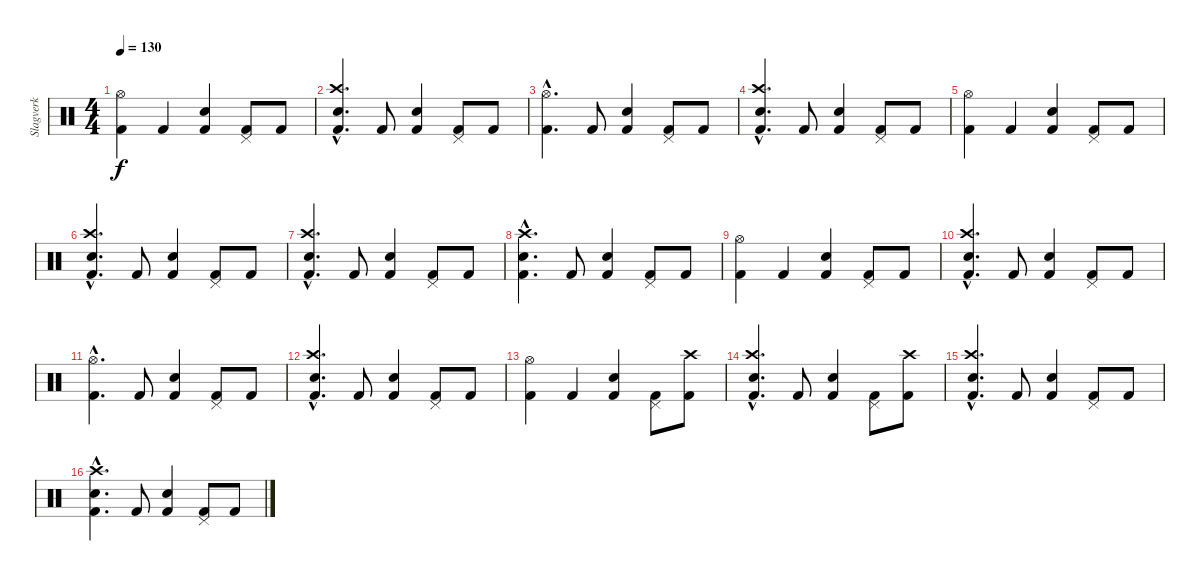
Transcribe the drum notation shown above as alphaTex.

\track ("Slagverk" "Slagverk") {instrument percussion}
\staff {score}
\articulation defaults
\ts (4 4)
\tempo 130
\clef neutral
\ks c
("Hi-Hat (open)" "Kick (hit) 2").4{dy f} "Kick (hit) 2".4 ("Electric Snare (hit)" "Kick (hit) 2").4 ("Pedal Hi-Hat (hit)" "Kick (hit) 2").8 "Kick (hit) 2".8 |
("Crash high (hit)"{hac} "Snare (hit) 2"{hac} "Kick (hit) 2"{hac}).4{d} "Kick (hit) 2".8 ("Electric Snare (hit)" "Kick (hit) 2").4 ("Pedal Hi-Hat (hit)" "Kick (hit) 2").8 "Kick (hit) 2".8 |
("Hi-Hat (open)"{hac} "Kick (hit) 2"{hac}).4{d} "Kick (hit) 2".8 ("Electric Snare (hit)" "Kick (hit) 2").4 ("Pedal Hi-Hat (hit)" "Kick (hit) 2").8 "Kick (hit) 2".8 |
("Crash high (hit)"{hac} "Snare (hit) 2"{hac} "Kick (hit) 2"{hac}).4{d} "Kick (hit) 2".8 ("Electric Snare (hit)" "Kick (hit) 2").4 ("Pedal Hi-Hat (hit)" "Kick (hit) 2").8 "Kick (hit) 2".8 |
("Hi-Hat (open)" "Kick (hit) 2").4 "Kick (hit) 2".4 ("Electric Snare (hit)" "Kick (hit) 2").4 ("Pedal Hi-Hat (hit)" "Kick (hit) 2").8 "Kick (hit) 2".8 |
("Crash high (hit)"{hac} "Snare (hit) 2"{hac} "Kick (hit) 2"{hac}).4{d} "Kick (hit) 2".8 ("Electric Snare (hit)" "Kick (hit) 2").4 ("Pedal Hi-Hat (hit)" "Kick (hit) 2").8 "Kick (hit) 2".8 |
("Crash high (hit)"{hac} "Snare (hit) 2"{hac} "Kick (hit) 2"{hac}).4{d} "Kick (hit) 2".8 ("Electric Snare (hit)" "Kick (hit) 2").4 ("Pedal Hi-Hat (hit)" "Kick (hit) 2").8 "Kick (hit) 2".8 |
("Crash high (hit)"{hac} "Electric Snare (hit)"{hac} "Kick (hit) 2"{hac}).4{d} "Kick (hit) 2".8 ("Electric Snare (hit)" "Kick (hit) 2").4 ("Pedal Hi-Hat (hit)" "Kick (hit) 2").8 "Kick (hit) 2".8 |
("Hi-Hat (open)" "Kick (hit) 2").4 "Kick (hit) 2".4 ("Electric Snare (hit)" "Kick (hit) 2").4 ("Pedal Hi-Hat (hit)" "Kick (hit) 2").8 "Kick (hit) 2".8 |
("Crash high (hit)"{hac} "Snare (hit) 2"{hac} "Kick (hit) 2"{hac}).4{d} "Kick (hit) 2".8 ("Electric Snare (hit)" "Kick (hit) 2").4 ("Pedal Hi-Hat (hit)" "Kick (hit) 2").8 "Kick (hit) 2".8 |
("Hi-Hat (open)"{hac} "Kick (hit) 2"{hac}).4{d} "Kick (hit) 2".8 ("Electric Snare (hit)" "Kick (hit) 2").4 ("Pedal Hi-Hat (hit)" "Kick (hit) 2").8 "Kick (hit) 2".8 |
("Crash high (hit)"{hac} "Snare (hit) 2"{hac} "Kick (hit) 2"{hac}).4{d} "Kick (hit) 2".8 ("Electric Snare (hit)" "Kick (hit) 2").4 ("Pedal Hi-Hat (hit)" "Kick (hit) 2").8 "Kick (hit) 2".8 |
("Hi-Hat (open)" "Kick (hit) 2").4 "Kick (hit) 2".4 ("Electric Snare (hit)" "Kick (hit) 2").4 ("Pedal Hi-Hat (hit)" "Kick (hit) 2").8 ("Crash high (hit)" "Kick (hit) 2").8 |
("Crash high (hit)"{hac} "Snare (hit) 2"{hac} "Kick (hit) 2"{hac}).4{d} "Kick (hit) 2".8 ("Electric Snare (hit)" "Kick (hit) 2").4 ("Pedal Hi-Hat (hit)" "Kick (hit) 2").8 ("Crash high (hit)" "Kick (hit) 2").8 |
("Crash high (hit)"{hac} "Snare (hit) 2"{hac} "Kick (hit) 2"{hac}).4{d} "Kick (hit) 2".8 ("Electric Snare (hit)" "Kick (hit) 2").4 ("Pedal Hi-Hat (hit)" "Kick (hit) 2").8 "Kick (hit) 2".8 |
("Crash high (hit)"{hac} "Electric Snare (hit)"{hac} "Kick (hit) 2"{hac}).4{d} "Kick (hit) 2".8 ("Electric Snare (hit)" "Kick (hit) 2").4 ("Pedal Hi-Hat (hit)" "Kick (hit) 2").8 "Kick (hit) 2".8
